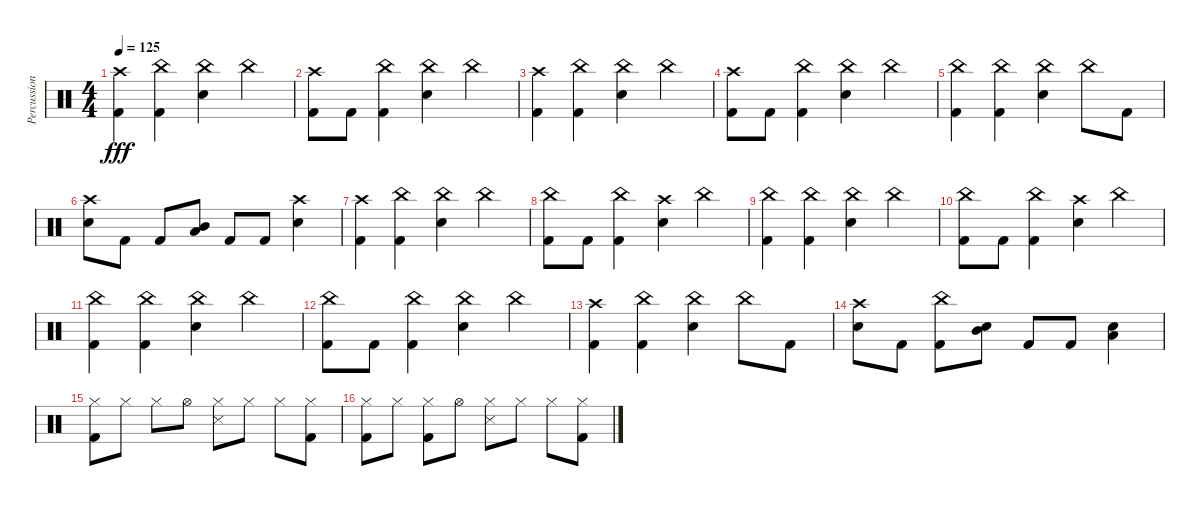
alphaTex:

\track ("Percussion" "Percussion") {instrument percussion}
\staff {score}
\articulation defaults
\ts (4 4)
\tempo 125
\clef neutral
\ks c
("Kick (hit) 2" "Crash high (hit)").4{dy fff} ("Kick (hit) 2" "China (hit)").4 ("Electric Snare (hit)" "China (hit)").4 "China (hit)".4 |
("Kick (hit) 2" "Crash high (hit)").8 "Kick (hit) 2".8 ("China (hit)" "Kick (hit) 2").4 ("China (hit)" "Electric Snare (hit)").4 "China (hit)".4 |
("Kick (hit) 2" "Crash high (hit)").4 ("China (hit)" "Kick (hit) 2").4 ("Electric Snare (hit)" "China (hit)").4 "China (hit)".4 |
("Kick (hit) 2" "Crash high (hit)").8 "Kick (hit) 2".8 ("Kick (hit) 2" "China (hit)").4 ("China (hit)" "Electric Snare (hit)").4 "China (hit)".4 |
("Kick (hit) 2" "China (hit)").4 ("China (hit)" "Kick (hit) 2").4 ("Electric Snare (hit)" "China (hit)").4 "China (hit)".8 "Kick (hit) 2".8 |
("Crash high (hit)" "Electric Snare (hit)").8 "Kick (hit) 2".8 "Kick (hit) 2".8 ("Mid Tom (hit)" "Low Tom (hit)").8 "Kick (hit) 2".8 "Kick (hit) 2".8 ("Electric Snare (hit)" "Crash high (hit)").4 |
("Kick (hit) 2" "Crash high (hit)").4 ("Kick (hit) 2" "China (hit)").4 ("Electric Snare (hit)" "China (hit)").4 "China (hit)".4 |
("Kick (hit) 2" "China (hit)").8 "Kick (hit) 2".8 ("China (hit)" "Kick (hit) 2").4 ("Crash high (hit)" "Electric Snare (hit)").4 "China (hit)".4 |
("Kick (hit) 2" "China (hit)").4 ("Kick (hit) 2" "China (hit)").4 ("Electric Snare (hit)" "China (hit)").4 "China (hit)".4 |
("Kick (hit) 2" "China (hit)").8 "Kick (hit) 2".8 ("China (hit)" "Kick (hit) 2").4 ("Crash high (hit)" "Electric Snare (hit)").4 "China (hit)".4 |
("China (hit)" "Kick (hit) 2").4 ("Kick (hit) 2" "China (hit)").4 ("Electric Snare (hit)" "China (hit)").4 "China (hit)".4 |
("Kick (hit) 2" "China (hit)").8 "Kick (hit) 2".8 ("Kick (hit) 2" "China (hit)").4 ("China (hit)" "Electric Snare (hit)").4 "China (hit)".4 |
("Kick (hit) 2" "Crash high (hit)").4 ("Kick (hit) 2" "China (hit)").4 ("Electric Snare (hit)" "China (hit)").4 "China (hit)".8 "Kick (hit) 2".8 |
("Crash high (hit)" "Electric Snare (hit)").8 "Kick (hit) 2".8 ("Kick (hit) 2" "China (hit)").8 ("Mid Tom (hit)" "Electric Snare (hit)").8 "Kick (hit) 2".8 "Kick (hit) 2".8 ("Low Tom (hit)" "Electric Snare (hit)").4 |
("Hi-Hat (closed)" "Kick (hit) 2").8 "Hi-Hat (closed)".8 "Hi-Hat (closed)".8 "Hi-Hat (open)".8 ("Hi-Hat (closed)" "Snare (side stick) 3").8 "Hi-Hat (closed)".8 "Hi-Hat (closed)".8 ("Hi-Hat (closed)" "Kick (hit) 2").8 |
("Hi-Hat (closed)" "Kick (hit) 2").8 "Hi-Hat (closed)".8 ("Hi-Hat (closed)" "Kick (hit) 2").8 "Hi-Hat (open)".8 ("Hi-Hat (closed)" "Snare (side stick) 3").8 "Hi-Hat (closed)".8 "Hi-Hat (closed)".8 ("Hi-Hat (closed)" "Kick (hit) 2").8
